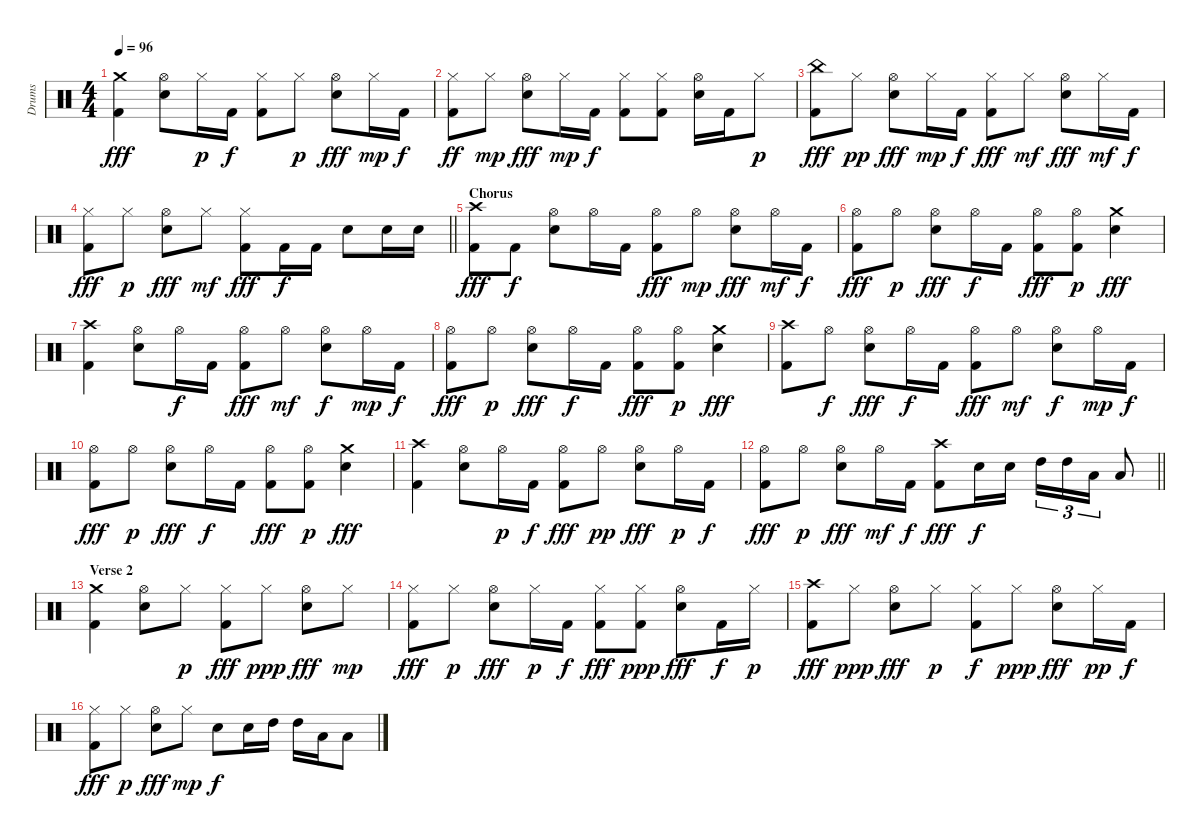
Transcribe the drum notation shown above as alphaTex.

\track ("Drums" "Drums") {instrument percussion}
\staff {score}
\articulation defaults
\ts (4 4)
\tempo 96
\clef neutral
\ks c
("Crash medium (hit)" "Kick (hit) 2").4{dy fff} ("Hi-Hat (open)" "Snare (hit) 2").8 "Hi-Hat (closed)".16{dy p} "Kick (hit) 2".16{dy f} ("Hi-Hat (closed)" "Kick (hit) 2").8 "Hi-Hat (closed)".8{dy p} ("Hi-Hat (open)" "Snare (hit) 2").8{dy fff} "Hi-Hat (closed)".16{dy mp} "Kick (hit) 2".16{dy f} |
("Hi-Hat (closed)" "Kick (hit) 2").8{dy ff} "Hi-Hat (closed)".8{dy mp} ("Hi-Hat (open)" "Snare (hit) 2").8{dy fff} "Hi-Hat (closed)".16{dy mp} "Kick (hit) 2".16{dy f} ("Hi-Hat (closed)" "Kick (hit) 2").8 ("Hi-Hat (closed)" "Kick (hit) 2").8 ("Hi-Hat (open)" "Snare (hit) 2").16 "Kick (hit) 2".16 "Hi-Hat (closed)".8{dy p} |
("China (hit)" "Kick (hit) 2").8{dy fff} "Hi-Hat (closed)".8{dy pp} ("Hi-Hat (open)" "Snare (hit) 2").8{dy fff} "Hi-Hat (closed)".16{dy mp} "Kick (hit) 2".16{dy f} ("Hi-Hat (closed)" "Kick (hit) 2").8{dy fff} "Hi-Hat (closed)".8{dy mf} ("Hi-Hat (open)" "Snare (hit) 2").8{dy fff} "Hi-Hat (closed)".16{dy mf} "Kick (hit) 2".16{dy f} |
\barLineRight lightlight
("Hi-Hat (closed)" "Kick (hit) 2").8{dy fff} "Hi-Hat (closed)".8{dy p} ("Hi-Hat (open)" "Snare (hit) 2").8{dy fff} "Hi-Hat (closed)".8{dy mf} ("Hi-Hat (closed)" "Kick (hit) 2").8{dy fff} "Kick (hit) 2".16{dy f} "Kick (hit) 2".16 "Snare (hit) 2".8 "Snare (hit) 2".16 "Snare (hit) 2".16 |
\section ("" "Chorus")
("Crash high (hit)" "Kick (hit) 2").8{dy fff} "Kick (hit) 2".8{dy f} ("Hi-Hat (open)" "Snare (hit) 2").8 "Hi-Hat (open)".16 "Kick (hit) 2".16 ("Hi-Hat (open)" "Kick (hit) 2").8{dy fff} "Hi-Hat (open)".8{dy mp} ("Hi-Hat (open)" "Snare (hit) 2").8{dy fff} "Hi-Hat (open)".16{dy mf} "Kick (hit) 2".16{dy f} |
("Hi-Hat (open)" "Kick (hit) 2").8{dy fff} "Hi-Hat (open)".8{dy p} ("Hi-Hat (open)" "Snare (hit) 2").8{dy fff} "Hi-Hat (open)".16{dy f} "Kick (hit) 2".16 ("Hi-Hat (open)" "Kick (hit) 2").8{dy fff} ("Hi-Hat (open)" "Kick (hit) 2").8{dy p} ("Crash medium (hit)" "Snare (hit) 2").4{dy fff} |
("Crash high (hit)" "Kick (hit) 2").4 ("Hi-Hat (open)" "Snare (hit) 2").8 "Hi-Hat (open)".16{dy f} "Kick (hit) 2".16 ("Hi-Hat (open)" "Kick (hit) 2").8{dy fff} "Hi-Hat (open)".8{dy mf} ("Hi-Hat (open)" "Snare (hit) 2").8{dy f} "Hi-Hat (open)".16{dy mp} "Kick (hit) 2".16{dy f} |
("Hi-Hat (open)" "Kick (hit) 2").8{dy fff} "Hi-Hat (open)".8{dy p} ("Hi-Hat (open)" "Snare (hit) 2").8{dy fff} "Hi-Hat (open)".16{dy f} "Kick (hit) 2".16 ("Hi-Hat (open)" "Kick (hit) 2").8{dy fff} ("Hi-Hat (open)" "Kick (hit) 2").8{dy p} ("Crash medium (hit)" "Snare (hit) 2").4{dy fff} |
("Crash high (hit)" "Kick (hit) 2").8 "Hi-Hat (open)".8{dy f} ("Hi-Hat (open)" "Snare (hit) 2").8{dy fff} "Hi-Hat (open)".16{dy f} "Kick (hit) 2".16 ("Hi-Hat (open)" "Kick (hit) 2").8{dy fff} "Hi-Hat (open)".8{dy mf} ("Hi-Hat (open)" "Snare (hit) 2").8{dy f} "Hi-Hat (open)".16{dy mp} "Kick (hit) 2".16{dy f} |
("Hi-Hat (open)" "Kick (hit) 2").8{dy fff} "Hi-Hat (open)".8{dy p} ("Hi-Hat (open)" "Snare (hit) 2").8{dy fff} "Hi-Hat (open)".16{dy f} "Kick (hit) 2".16 ("Hi-Hat (open)" "Kick (hit) 2").8{dy fff} ("Hi-Hat (open)" "Kick (hit) 2").8{dy p} ("Crash medium (hit)" "Snare (hit) 2").4{dy fff} |
("Crash high (hit)" "Kick (hit) 2").4 ("Hi-Hat (open)" "Snare (hit) 2").8 "Hi-Hat (open)".16{dy p} "Kick (hit) 2".16{dy f} ("Hi-Hat (open)" "Kick (hit) 2").8{dy fff} "Hi-Hat (open)".8{dy pp} ("Hi-Hat (open)" "Snare (hit) 2").8{dy fff} "Hi-Hat (open)".16{dy p} "Kick (hit) 2".16{dy f} |
\barLineRight lightlight
("Hi-Hat (open)" "Kick (hit) 2").8{dy fff} "Hi-Hat (open)".8{dy p} ("Hi-Hat (open)" "Snare (hit) 2").8{dy fff} "Hi-Hat (open)".16{dy mf} "Kick (hit) 2".16{dy f} ("Crash high (hit)" "Kick (hit) 2").8{dy fff} "Snare (hit) 2".16{dy f} "Snare (hit) 2".16 "High Tom (hit)".16{tu (3 2)} "High Tom (hit)".16{tu (3 2)} "Low Tom (hit)".16{tu (3 2)} "Low Tom (hit)".8 |
\section ("" "Verse 2")
("Crash medium (hit)" "Kick (hit) 2").4 ("Hi-Hat (open)" "Snare (hit) 2").8 "Hi-Hat (closed)".8{dy p} ("Hi-Hat (closed)" "Kick (hit) 2").8{dy fff} "Hi-Hat (closed)".8{dy ppp} ("Hi-Hat (open)" "Snare (hit) 2").8{dy fff} "Hi-Hat (closed)".8{dy mp} |
("Hi-Hat (closed)" "Kick (hit) 2").8{dy fff} "Hi-Hat (closed)".8{dy p} ("Hi-Hat (open)" "Snare (hit) 2").8{dy fff} "Hi-Hat (closed)".16{dy p} "Kick (hit) 2".16{dy f} ("Hi-Hat (closed)" "Kick (hit) 2").8{dy fff} ("Hi-Hat (closed)" "Kick (hit) 2").8{dy ppp} ("Hi-Hat (open)" "Snare (hit) 2").8{dy fff} "Kick (hit) 2".16{dy f} "Hi-Hat (closed)".16{dy p} |
("Crash high (hit)" "Kick (hit) 2").8{dy fff} "Hi-Hat (closed)".8{dy ppp} ("Hi-Hat (open)" "Snare (hit) 2").8{dy fff} "Hi-Hat (closed)".8{dy p} ("Hi-Hat (closed)" "Kick (hit) 2").8{dy f} "Hi-Hat (closed)".8{dy ppp} ("Hi-Hat (open)" "Snare (hit) 2").8{dy fff} "Hi-Hat (closed)".16{dy pp} "Kick (hit) 2".16{dy f} |
("Hi-Hat (closed)" "Kick (hit) 2").8{dy fff} "Hi-Hat (closed)".8{dy p} ("Hi-Hat (open)" "Snare (hit) 2").8{dy fff} "Hi-Hat (closed)".8{dy mp} "Snare (hit) 2".8{dy f} "Snare (hit) 2".16 "High Tom (hit)".16 "High Tom (hit)".16 "Low Tom (hit)".16 "Low Tom (hit)".8
